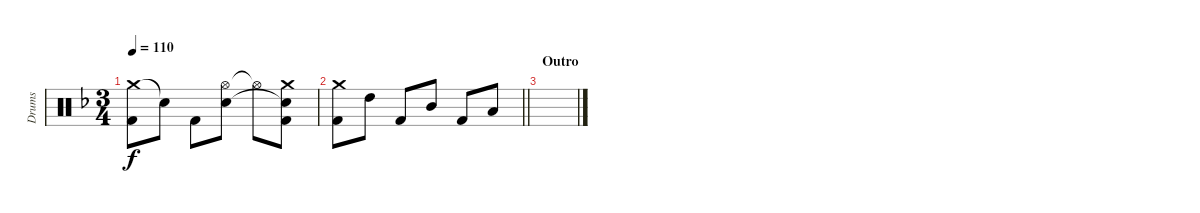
\track ("Drums" "Drums") {instrument percussion}
\staff {score}
\articulation defaults
\ts (3 4)
\tempo 110
\clef neutral
\ks dminor
("Crash medium (hit)" "Kick (hit) 2").8{dy f} "Snare (hit)"{t}.8 "Kick (hit) 2".8 ("Hi-Hat (open)" "Snare (hit) 2").8 "Hi-Hat (open)"{t}.8 ("Crash medium (hit)" "Snare (hit)"{t} "Kick (hit) 2").8 |
\barLineRight lightlight
("Crash medium (hit)" "Kick (hit) 2").8 "High Tom (hit)".8 "Kick (hit) 2".8 "Mid Tom (hit)".8 "Kick (hit) 2".8 "Low Tom (hit)".8 |
\section ("" "Outro")
